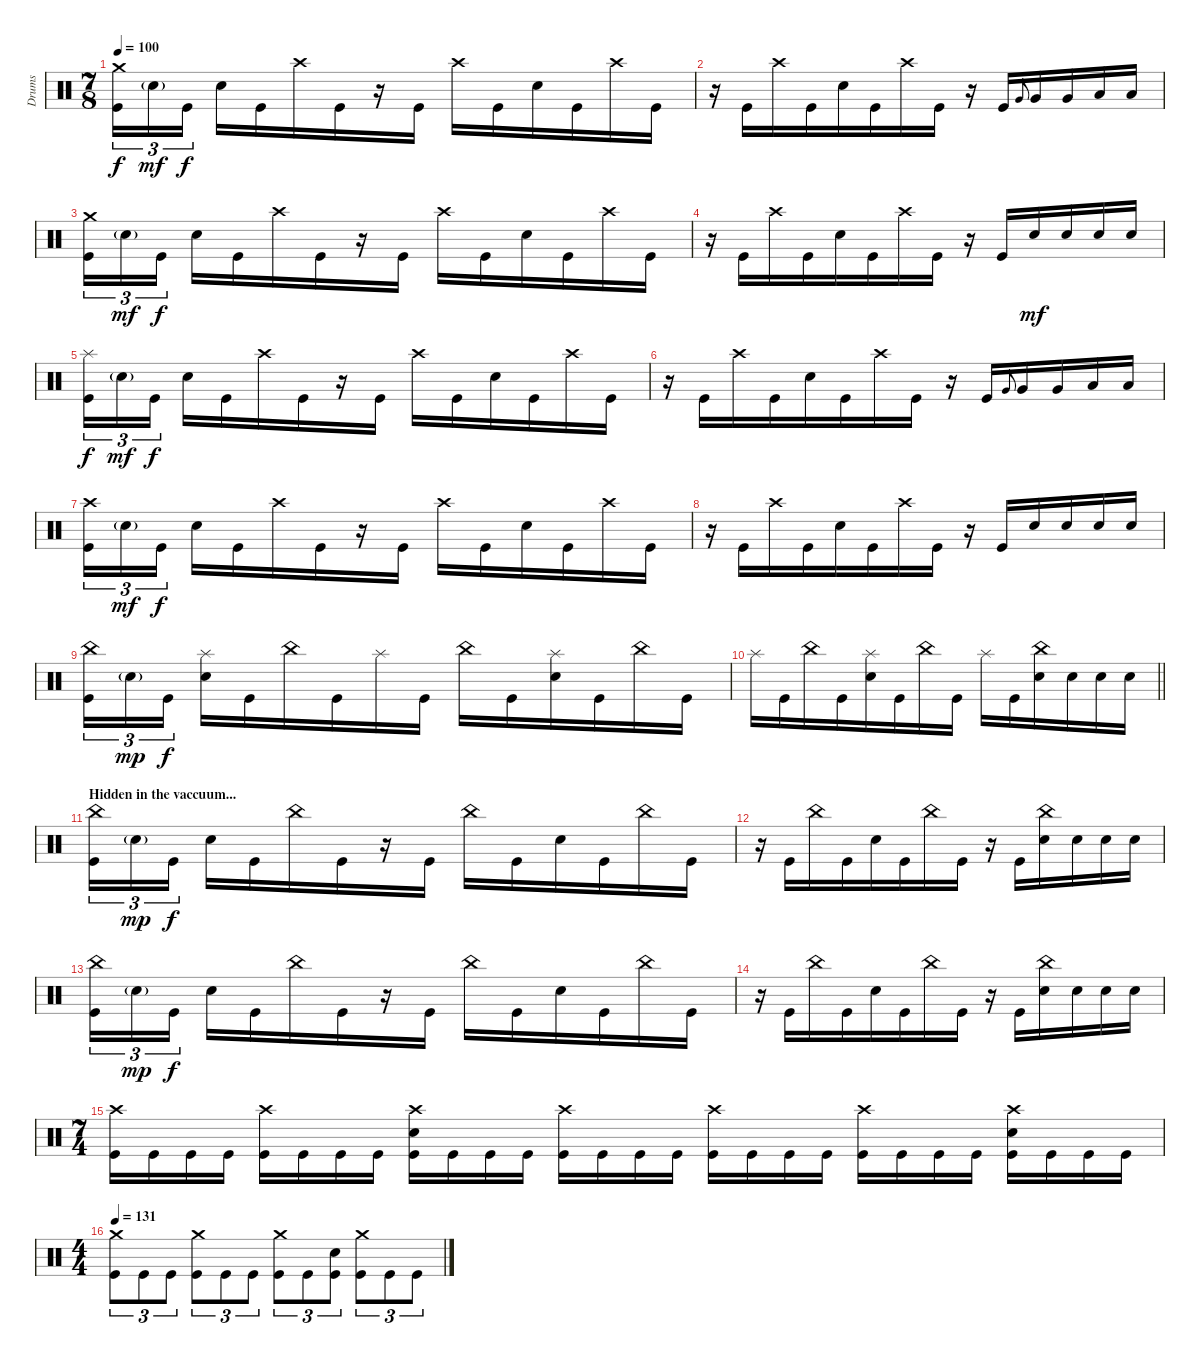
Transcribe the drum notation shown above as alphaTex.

\track ("Drums" "Drums") {instrument percussion}
\staff {score}
\articulation defaults
\ts (7 8)
\tempo 100
\clef neutral
\ks c
("Crash medium (hit)" "Kick (hit)").16{tu (3 2) dy f} "Electric Snare (hit)"{g}.16{tu (3 2) dy mf} "Kick (hit)".16{tu (3 2) dy f} "Electric Snare (hit)".16 "Kick (hit)".16 "Crash high (hit)".16 "Kick (hit)".16 r.16 "Kick (hit)".16 "Crash high (hit)".16 "Kick (hit)".16 "Electric Snare (hit)".16 "Kick (hit)".16 "Crash high (hit)".16 "Kick (hit)".16 |
r.16 "Kick (hit)".16 "Crash high (hit)".16 "Kick (hit)".16 "Electric Snare (hit)".16 "Kick (hit)".16 "Crash high (hit)".16 "Kick (hit)".16 r.16 "Kick (hit)".16 "Very Low Tom (hit)".8{gr onbeat} "Very Low Tom (hit)".16 "Very Low Tom (hit)".16 "Low Floor Tom (hit)".16 "Low Floor Tom (hit)".16 |
("Crash medium (hit)" "Kick (hit)").16{tu (3 2)} "Electric Snare (hit)"{g}.16{tu (3 2) dy mf} "Kick (hit)".16{tu (3 2) dy f} "Electric Snare (hit)".16 "Kick (hit)".16 "Crash high (hit)".16 "Kick (hit)".16 r.16 "Kick (hit)".16 "Crash high (hit)".16 "Kick (hit)".16 "Electric Snare (hit)".16 "Kick (hit)".16 "Crash high (hit)".16 "Kick (hit)".16 |
r.16 "Kick (hit)".16 "Crash high (hit)".16 "Kick (hit)".16 "Electric Snare (hit)".16 "Kick (hit)".16 "Crash high (hit)".16 "Kick (hit)".16 r.16 "Kick (hit)".16 "Electric Snare (hit)".16{dy mf} "Electric Snare (hit)".16 "Electric Snare (hit)".16 "Electric Snare (hit)".16 |
("Splash (hit)" "Kick (hit)").16{tu (3 2) dy f} "Electric Snare (hit)"{g}.16{tu (3 2) dy mf} "Kick (hit)".16{tu (3 2) dy f} "Electric Snare (hit)".16 "Kick (hit)".16 "Crash high (hit)".16 "Kick (hit)".16 r.16 "Kick (hit)".16 "Crash high (hit)".16 "Kick (hit)".16 "Electric Snare (hit)".16 "Kick (hit)".16 "Crash high (hit)".16 "Kick (hit)".16 |
r.16 "Kick (hit)".16 "Crash high (hit)".16 "Kick (hit)".16 "Electric Snare (hit)".16 "Kick (hit)".16 "Crash high (hit)".16 "Kick (hit)".16 r.16 "Kick (hit)".16 "Very Low Tom (hit)".8{gr onbeat} "Very Low Tom (hit)".16 "Very Low Tom (hit)".16 "Low Floor Tom (hit)".16 "Low Floor Tom (hit)".16 |
("Crash high (hit)" "Kick (hit)").16{tu (3 2)} "Electric Snare (hit)"{g}.16{tu (3 2) dy mf} "Kick (hit)".16{tu (3 2) dy f} "Electric Snare (hit)".16 "Kick (hit)".16 "Crash high (hit)".16 "Kick (hit)".16 r.16 "Kick (hit)".16 "Crash high (hit)".16 "Kick (hit)".16 "Electric Snare (hit)".16 "Kick (hit)".16 "Crash high (hit)".16 "Kick (hit)".16 |
r.16 "Kick (hit)".16 "Crash high (hit)".16 "Kick (hit)".16 "Electric Snare (hit)".16 "Kick (hit)".16 "Crash high (hit)".16 "Kick (hit)".16 r.16 "Kick (hit)".16 "Electric Snare (hit)".16 "Electric Snare (hit)".16 "Electric Snare (hit)".16 "Electric Snare (hit)".16 |
("China (hit)" "Kick (hit)").16{tu (3 2)} "Electric Snare (hit)"{g}.16{tu (3 2) dy mp} "Kick (hit)".16{tu (3 2) dy f} ("Splash (hit)" "Electric Snare (hit)").16 "Kick (hit)".16 "China (hit)".16 "Kick (hit)".16 "Splash (hit)".16 "Kick (hit)".16 "China (hit)".16 "Kick (hit)".16 ("Splash (hit)" "Electric Snare (hit)").16 "Kick (hit)".16 "China (hit)".16 "Kick (hit)".16 |
\barLineRight lightlight "Splash (hit)".16 "Kick (hit)".16 "China (hit)".16 "Kick (hit)".16
("Splash (hit)" "Electric Snare (hit)").16 "Kick (hit)".16 "China (hit)".16 "Kick (hit)".16 "Splash (hit)".16 "Kick (hit)".16 ("China (hit)" "Electric Snare (hit)").16 "Electric Snare (hit)".16 "Electric Snare (hit)".16 "Electric Snare (hit)".16 |
\section ("" "Hidden in the vaccuum...")
("China (hit)" "Kick (hit)").16{tu (3 2)} "Electric Snare (hit)"{g}.16{tu (3 2) dy mp} "Kick (hit)".16{tu (3 2) dy f} "Electric Snare (hit)".16 "Kick (hit)".16 "China (hit)".16 "Kick (hit)".16 r.16 "Kick (hit)".16 "China (hit)".16 "Kick (hit)".16 "Electric Snare (hit)".16 "Kick (hit)".16 "China (hit)".16 "Kick (hit)".16 |
r.16 "Kick (hit)".16 "China (hit)".16 "Kick (hit)".16 "Electric Snare (hit)".16 "Kick (hit)".16 "China (hit)".16 "Kick (hit)".16 r.16 "Kick (hit)".16 ("China (hit)" "Electric Snare (hit)").16 "Electric Snare (hit)".16 "Electric Snare (hit)".16 "Electric Snare (hit)".16 |
("China (hit)" "Kick (hit)").16{tu (3 2)} "Electric Snare (hit)"{g}.16{tu (3 2) dy mp} "Kick (hit)".16{tu (3 2) dy f} "Electric Snare (hit)".16 "Kick (hit)".16 "China (hit)".16 "Kick (hit)".16 r.16 "Kick (hit)".16 "China (hit)".16 "Kick (hit)".16 "Electric Snare (hit)".16 "Kick (hit)".16 "China (hit)".16 "Kick (hit)".16 |
r.16 "Kick (hit)".16 "China (hit)".16 "Kick (hit)".16 "Electric Snare (hit)".16 "Kick (hit)".16 "China (hit)".16 "Kick (hit)".16 r.16 "Kick (hit)".16 ("China (hit)" "Electric Snare (hit)").16 "Electric Snare (hit)".16 "Electric Snare (hit)".16 "Electric Snare (hit)".16 |
\ts (7 4)
("Crash high (hit)" "Kick (hit)").16 "Kick (hit)".16 "Kick (hit)".16 "Kick (hit)".16 ("Crash high (hit)" "Kick (hit)").16 "Kick (hit)".16 "Kick (hit)".16 "Kick (hit)".16 ("Crash high (hit)" "Electric Snare (hit)" "Kick (hit)").16 "Kick (hit)".16 "Kick (hit)".16 "Kick (hit)".16 ("Crash high (hit)" "Kick (hit)").16 "Kick (hit)".16 "Kick (hit)".16 "Kick (hit)".16 ("Crash high (hit)" "Kick (hit)").16 "Kick (hit)".16 "Kick (hit)".16 "Kick (hit)".16 ("Crash high (hit)" "Kick (hit)").16 "Kick (hit)".16 "Kick (hit)".16 "Kick (hit)".16 ("Crash high (hit)" "Electric Snare (hit)" "Kick (hit)").16 "Kick (hit)".16 "Kick (hit)".16 "Kick (hit)".16 |
\ts (4 4)
\tempo 131
("Crash medium (hit)" "Kick (hit)").8{tu (3 2)} "Kick (hit)".8{tu (3 2)} "Kick (hit)".8{tu (3 2)} ("Crash medium (hit)" "Kick (hit)").8{tu (3 2)} "Kick (hit)".8{tu (3 2)} "Kick (hit)".8{tu (3 2)} ("Crash medium (hit)" "Kick (hit)").8{tu (3 2)} "Kick (hit)".8{tu (3 2)} ("Electric Snare (hit)" "Kick (hit)").8{tu (3 2)} ("Crash medium (hit)" "Kick (hit)").8{tu (3 2)} "Kick (hit)".8{tu (3 2)} "Kick (hit)".8{tu (3 2)}
